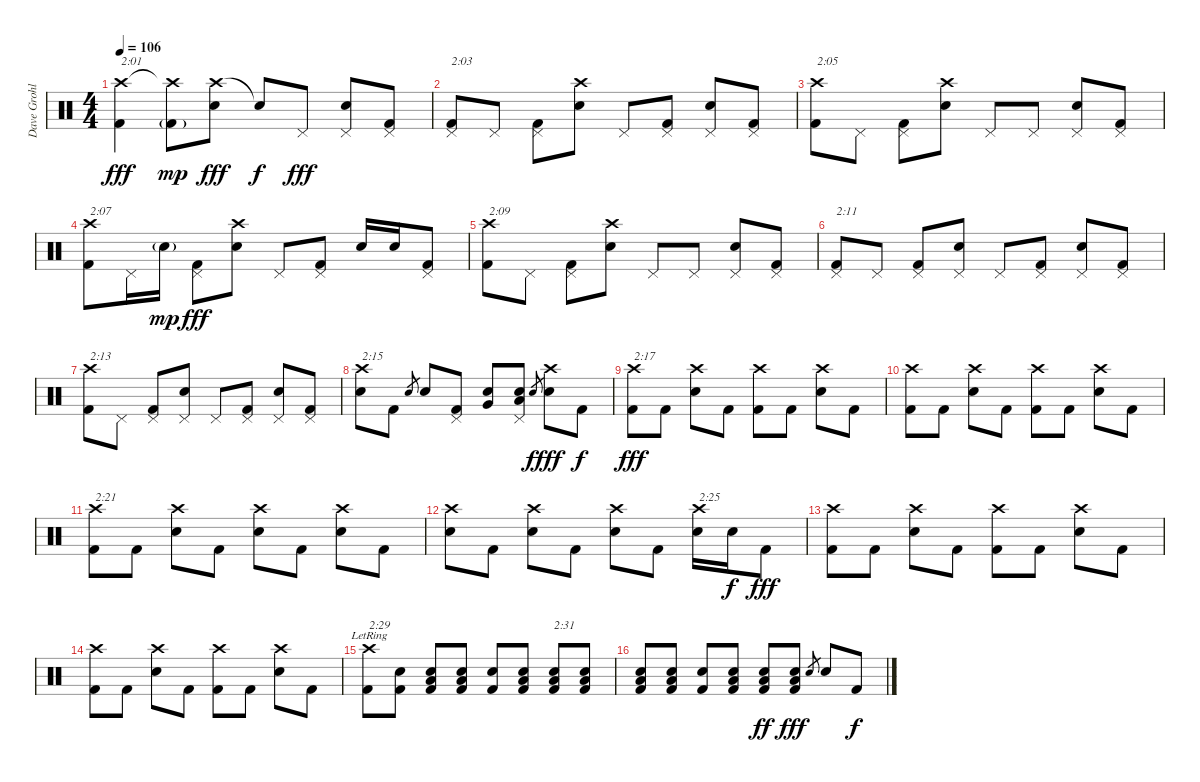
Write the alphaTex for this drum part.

\track ("Dave Grohl" "Dave Grohl") {instrument percussion}
\staff {score}
\articulation defaults
\ts (4 4)
\tempo 106
\clef neutral
\ks c
("Crash high (hit)" "Kick (hit) 2").4{txt "2:01" dy fff} ("Crash high (hit)"{t} "Kick (hit) 2"{g}).8{dy mp} ("Crash high (hit)" "Snare (hit) 2").8{dy fff} "Snare (hit)"{t}.8{dy f} "Pedal Hi-Hat (hit)".8{dy fff} ("Pedal Hi-Hat (hit)" "Snare (hit) 2").8 ("Pedal Hi-Hat (hit)" "Kick (hit) 2").8 |
("Pedal Hi-Hat (hit)" "Kick (hit) 2").8{txt "2:03"} "Pedal Hi-Hat (hit)".8 ("Pedal Hi-Hat (hit)" "Kick (hit) 2").8 ("Crash high (hit)" "Snare (hit) 2").8 "Pedal Hi-Hat (hit)".8 ("Pedal Hi-Hat (hit)" "Kick (hit) 2").8 ("Pedal Hi-Hat (hit)" "Snare (hit) 2").8 ("Pedal Hi-Hat (hit)" "Kick (hit) 2").8 |
("Crash high (hit)" "Kick (hit) 2").8{txt "2:05"} "Pedal Hi-Hat (hit)".8 ("Pedal Hi-Hat (hit)" "Kick (hit) 2").8 ("Crash high (hit)" "Snare (hit) 2").8 "Pedal Hi-Hat (hit)".8 "Pedal Hi-Hat (hit)".8 ("Pedal Hi-Hat (hit)" "Snare (hit) 2").8 ("Pedal Hi-Hat (hit)" "Kick (hit) 2").8 |
("Crash high (hit)" "Kick (hit) 2").8{txt "2:07"} "Pedal Hi-Hat (hit)".16 "Snare (hit) 2"{g}.16{dy mp} ("Pedal Hi-Hat (hit)" "Kick (hit) 2").8{dy fff} ("Crash high (hit)" "Snare (hit) 2").8 "Pedal Hi-Hat (hit)".8 ("Pedal Hi-Hat (hit)" "Kick (hit) 2").8 "Snare (hit) 2".16 "Snare (hit) 2".16 ("Pedal Hi-Hat (hit)" "Kick (hit) 2").8 |
("Crash high (hit)" "Kick (hit) 2").8{txt "2:09"} "Pedal Hi-Hat (hit)".8 ("Pedal Hi-Hat (hit)" "Kick (hit) 2").8 ("Crash high (hit)" "Snare (hit) 2").8 "Pedal Hi-Hat (hit)".8 "Pedal Hi-Hat (hit)".8 ("Pedal Hi-Hat (hit)" "Snare (hit) 2").8 ("Pedal Hi-Hat (hit)" "Kick (hit) 2").8 |
("Pedal Hi-Hat (hit)" "Kick (hit) 2").8{txt "2:11"} "Pedal Hi-Hat (hit)".8 ("Pedal Hi-Hat (hit)" "Kick (hit) 2").8 ("Pedal Hi-Hat (hit)" "Snare (hit) 2").8 "Pedal Hi-Hat (hit)".8 ("Pedal Hi-Hat (hit)" "Kick (hit) 2").8 ("Pedal Hi-Hat (hit)" "Snare (hit) 2").8 ("Pedal Hi-Hat (hit)" "Kick (hit) 2").8 |
("Crash high (hit)" "Kick (hit) 2").8{txt "2:13"} "Pedal Hi-Hat (hit)".8 ("Pedal Hi-Hat (hit)" "Kick (hit) 2").8 ("Pedal Hi-Hat (hit)" "Snare (hit) 2").8 "Pedal Hi-Hat (hit)".8 ("Pedal Hi-Hat (hit)" "Kick (hit) 2").8 ("Pedal Hi-Hat (hit)" "Snare (hit) 2").8 ("Pedal Hi-Hat (hit)" "Kick (hit) 2").8 |
("Crash high (hit)" "Snare (hit) 2").8{txt "2:15"} "Kick (hit) 2".8 "Snare (hit) 2".8{gr} "Snare (hit) 2".8 ("Pedal Hi-Hat (hit)" "Kick (hit) 2").8 ("Very Low Tom (hit)" "Snare (hit) 2").8 ("Pedal Hi-Hat (hit)" "Low Floor Tom (hit)" "Snare (hit) 2").8 "Snare (hit) 2".8{gr dy f} ("Crash high (hit)" "Snare (hit) 2").8{dy fff} "Kick (hit) 2".8{dy f} |
("Crash high (hit)" "Kick (hit) 2").8{txt "2:17" dy fff} "Kick (hit) 2".8 ("Crash high (hit)" "Snare (hit) 2").8 "Kick (hit) 2".8 ("Crash high (hit)" "Kick (hit) 2").8 "Kick (hit) 2".8 ("Crash high (hit)" "Snare (hit) 2").8 "Kick (hit) 2".8 |
("Crash high (hit)" "Kick (hit) 2").8 "Kick (hit) 2".8 ("Crash high (hit)" "Snare (hit) 2").8 "Kick (hit) 2".8 ("Crash high (hit)" "Kick (hit) 2").8 "Kick (hit) 2".8 ("Crash high (hit)" "Snare (hit) 2").8 "Kick (hit) 2".8 |
("Crash high (hit)" "Kick (hit) 2").8{txt "2:21"} "Kick (hit) 2".8 ("Crash high (hit)" "Snare (hit) 2").8 "Kick (hit) 2".8 ("Crash high (hit)" "Snare (hit) 2").8 "Kick (hit) 2".8 ("Crash high (hit)" "Snare (hit) 2").8 "Kick (hit) 2".8 |
("Crash high (hit)" "Snare (hit) 2").8 "Kick (hit) 2".8 ("Crash high (hit)" "Snare (hit) 2").8 "Kick (hit) 2".8 ("Crash high (hit)" "Snare (hit) 2").8 "Kick (hit) 2".8 ("Crash high (hit)" "Snare (hit) 2").16{txt "2:25"} "Snare (hit) 2".16{dy f} "Kick (hit) 2".8{dy fff} |
("Crash high (hit)" "Kick (hit) 2").8 "Kick (hit) 2".8 ("Crash high (hit)" "Snare (hit) 2").8 "Kick (hit) 2".8 ("Crash high (hit)" "Kick (hit) 2").8 "Kick (hit) 2".8 ("Crash high (hit)" "Snare (hit) 2").8 "Kick (hit) 2".8 |
("Crash high (hit)" "Kick (hit) 2").8 "Kick (hit) 2".8 ("Crash high (hit)" "Snare (hit) 2").8 "Kick (hit) 2".8 ("Crash high (hit)" "Kick (hit) 2").8 "Kick (hit) 2".8 ("Crash high (hit)" "Snare (hit) 2").8 "Kick (hit) 2".8 |
("Crash high (hit)"{lr} "Kick (hit) 2").8{txt "2:29"} ("Snare (hit) 2" "Kick (hit) 2").8 ("Snare (hit) 2" "Low Floor Tom (hit)" "Kick (hit) 2").8 ("Snare (hit) 2" "Low Floor Tom (hit)" "Kick (hit) 2").8 ("Snare (hit) 2" "Kick (hit) 2").8 ("Snare (hit) 2" "Low Floor Tom (hit)" "Kick (hit) 2").8 ("Snare (hit) 2" "Low Floor Tom (hit)" "Kick (hit) 2").8{txt "2:31"} ("Snare (hit) 2" "Low Floor Tom (hit)" "Kick (hit) 2").8 |
("Snare (hit) 2" "Low Floor Tom (hit)" "Kick (hit) 2").8 ("Snare (hit) 2" "Low Floor Tom (hit)" "Kick (hit) 2").8 ("Snare (hit) 2" "Kick (hit) 2").8 ("Snare (hit) 2" "Low Floor Tom (hit)" "Kick (hit) 2").8 ("Snare (hit) 2" "Low Floor Tom (hit)" "Kick (hit) 2").8{dy ff} ("Snare (hit) 2" "Low Floor Tom (hit)" "Kick (hit) 2").8{dy fff} "Snare (hit) 2".8{gr} "Snare (hit) 2".8 "Kick (hit) 2".8{dy f}
